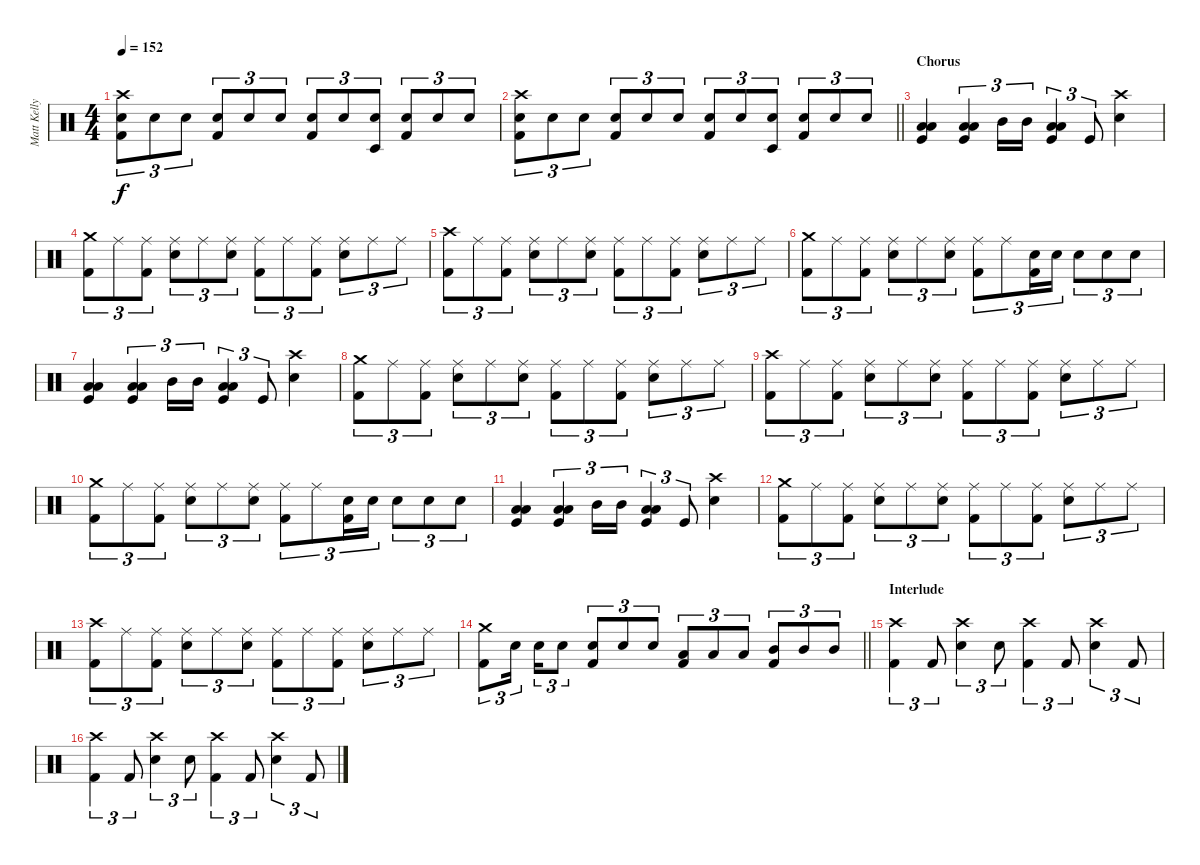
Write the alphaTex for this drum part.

\track ("Matt Kelly (Drums)" "Matt Kelly") {instrument percussion}
\staff {score}
\articulation defaults
\ts (4 4)
\tempo 152
\clef neutral
\ks c
("Crash high (hit)" "Electric Snare (hit)" "Kick (hit) 2").8{tu (3 2) dy f} "Electric Snare (hit)".8{tu (3 2)} "Electric Snare (hit)".8{tu (3 2)} ("Electric Snare (hit)" "Kick (hit) 2").8{tu (3 2)} "Electric Snare (hit)".8{tu (3 2)} "Electric Snare (hit)".8{tu (3 2)} ("Electric Snare (hit)" "Kick (hit) 2").8{tu (3 2)} "Electric Snare (hit)".8{tu (3 2)} ("Timbale low (hit)" "Electric Snare (hit)").8{tu (3 2)} ("Electric Snare (hit)" "Kick (hit) 2").8{tu (3 2)} "Electric Snare (hit)".8{tu (3 2)} "Electric Snare (hit)".8{tu (3 2)} |
\barLineRight lightlight
("Crash high (hit)" "Electric Snare (hit)" "Kick (hit) 2").8{tu (3 2)} "Electric Snare (hit)".8{tu (3 2)} "Electric Snare (hit)".8{tu (3 2)} ("Electric Snare (hit)" "Kick (hit) 2").8{tu (3 2)} "Electric Snare (hit)".8{tu (3 2)} "Electric Snare (hit)".8{tu (3 2)} ("Electric Snare (hit)" "Kick (hit) 2").8{tu (3 2)} "Electric Snare (hit)".8{tu (3 2)} ("Timbale low (hit)" "Electric Snare (hit)").8{tu (3 2)} ("Electric Snare (hit)" "Kick (hit) 2").8{tu (3 2)} "Electric Snare (hit)".8{tu (3 2)} "Electric Snare (hit)".8{tu (3 2)} |
\section ("" "Chorus")
("Low Tom (hit)" "Low Floor Tom (hit)" "Kick (hit)").4 ("Low Tom (hit)" "Low Floor Tom (hit)" "Kick (hit)").4{tu (3 2)} "Mid Tom (hit)".16{tu (3 2)} "Mid Tom (hit)".16{tu (3 2)} ("Low Tom (hit)" "Low Floor Tom (hit)" "Kick (hit)").4{tu (3 2)} "Kick (hit)".8{tu (3 2)} ("Crash high (hit)" "Snare (hit) 2").4 |
("Crash medium (hit)" "Kick (hit) 2").8{tu (3 2)} "Ride (middle)".8{tu (3 2)} ("Ride (middle)" "Kick (hit) 2").8{tu (3 2)} ("Ride (middle)" "Electric Snare (hit)").8{tu (3 2)} "Ride (middle)".8{tu (3 2)} ("Ride (middle)" "Electric Snare (hit)").8{tu (3 2)} ("Ride (middle)" "Kick (hit) 2").8{tu (3 2)} "Ride (middle)".8{tu (3 2)} ("Ride (middle)" "Kick (hit) 2").8{tu (3 2)} ("Ride (middle)" "Electric Snare (hit)").8{tu (3 2)} "Ride (middle)".8{tu (3 2)} "Ride (middle)".8{tu (3 2)} |
("Crash high (hit)" "Kick (hit) 2").8{tu (3 2)} "Ride (middle)".8{tu (3 2)} ("Ride (middle)" "Kick (hit) 2").8{tu (3 2)} ("Ride (middle)" "Electric Snare (hit)").8{tu (3 2)} "Ride (middle)".8{tu (3 2)} ("Ride (middle)" "Electric Snare (hit)").8{tu (3 2)} ("Ride (middle)" "Kick (hit) 2").8{tu (3 2)} "Ride (middle)".8{tu (3 2)} ("Ride (middle)" "Kick (hit) 2").8{tu (3 2)} ("Ride (middle)" "Electric Snare (hit)").8{tu (3 2)} "Ride (middle)".8{tu (3 2)} "Ride (middle)".8{tu (3 2)} |
("Crash medium (hit)" "Kick (hit) 2").8{tu (3 2)} "Ride (middle)".8{tu (3 2)} ("Ride (middle)" "Kick (hit) 2").8{tu (3 2)} ("Ride (middle)" "Electric Snare (hit)").8{tu (3 2)} "Ride (middle)".8{tu (3 2)} ("Ride (middle)" "Electric Snare (hit)").8{tu (3 2)} ("Ride (middle)" "Kick (hit) 2").8{tu (3 2)} "Ride (middle)".8{tu (3 2)} ("Electric Snare (hit)" "Kick (hit) 2").16{tu (3 2)} "Electric Snare (hit)".16{tu (3 2)} "Electric Snare (hit)".8{tu (3 2)} "Electric Snare (hit)".8{tu (3 2)} "Electric Snare (hit)".8{tu (3 2)} |
("Low Tom (hit)" "Low Floor Tom (hit)" "Kick (hit)").4 ("Low Tom (hit)" "Low Floor Tom (hit)" "Kick (hit)").4{tu (3 2)} "Mid Tom (hit)".16{tu (3 2)} "Mid Tom (hit)".16{tu (3 2)} ("Low Tom (hit)" "Low Floor Tom (hit)" "Kick (hit)").4{tu (3 2)} "Kick (hit)".8{tu (3 2)} ("Crash high (hit)" "Snare (hit) 2").4 |
("Crash medium (hit)" "Kick (hit) 2").8{tu (3 2)} "Ride (middle)".8{tu (3 2)} ("Ride (middle)" "Kick (hit) 2").8{tu (3 2)} ("Ride (middle)" "Electric Snare (hit)").8{tu (3 2)} "Ride (middle)".8{tu (3 2)} ("Ride (middle)" "Electric Snare (hit)").8{tu (3 2)} ("Ride (middle)" "Kick (hit) 2").8{tu (3 2)} "Ride (middle)".8{tu (3 2)} ("Ride (middle)" "Kick (hit) 2").8{tu (3 2)} ("Ride (middle)" "Electric Snare (hit)").8{tu (3 2)} "Ride (middle)".8{tu (3 2)} "Ride (middle)".8{tu (3 2)} |
("Crash high (hit)" "Kick (hit) 2").8{tu (3 2)} "Ride (middle)".8{tu (3 2)} ("Ride (middle)" "Kick (hit) 2").8{tu (3 2)} ("Ride (middle)" "Electric Snare (hit)").8{tu (3 2)} "Ride (middle)".8{tu (3 2)} ("Ride (middle)" "Electric Snare (hit)").8{tu (3 2)} ("Ride (middle)" "Kick (hit) 2").8{tu (3 2)} "Ride (middle)".8{tu (3 2)} ("Ride (middle)" "Kick (hit) 2").8{tu (3 2)} ("Ride (middle)" "Electric Snare (hit)").8{tu (3 2)} "Ride (middle)".8{tu (3 2)} "Ride (middle)".8{tu (3 2)} |
("Crash medium (hit)" "Kick (hit) 2").8{tu (3 2)} "Ride (middle)".8{tu (3 2)} ("Ride (middle)" "Kick (hit) 2").8{tu (3 2)} ("Ride (middle)" "Electric Snare (hit)").8{tu (3 2)} "Ride (middle)".8{tu (3 2)} ("Ride (middle)" "Electric Snare (hit)").8{tu (3 2)} ("Ride (middle)" "Kick (hit) 2").8{tu (3 2)} "Ride (middle)".8{tu (3 2)} ("Electric Snare (hit)" "Kick (hit) 2").16{tu (3 2)} "Electric Snare (hit)".16{tu (3 2)} "Electric Snare (hit)".8{tu (3 2)} "Electric Snare (hit)".8{tu (3 2)} "Electric Snare (hit)".8{tu (3 2)} |
("Low Tom (hit)" "Low Floor Tom (hit)" "Kick (hit)").4 ("Low Tom (hit)" "Low Floor Tom (hit)" "Kick (hit)").4{tu (3 2)} "Mid Tom (hit)".16{tu (3 2)} "Mid Tom (hit)".16{tu (3 2)} ("Low Tom (hit)" "Low Floor Tom (hit)" "Kick (hit)").4{tu (3 2)} "Kick (hit)".8{tu (3 2)} ("Crash high (hit)" "Snare (hit) 2").4 |
("Crash medium (hit)" "Kick (hit) 2").8{tu (3 2)} "Ride (middle)".8{tu (3 2)} ("Ride (middle)" "Kick (hit) 2").8{tu (3 2)} ("Ride (middle)" "Electric Snare (hit)").8{tu (3 2)} "Ride (middle)".8{tu (3 2)} ("Ride (middle)" "Electric Snare (hit)").8{tu (3 2)} ("Ride (middle)" "Kick (hit) 2").8{tu (3 2)} "Ride (middle)".8{tu (3 2)} ("Ride (middle)" "Kick (hit) 2").8{tu (3 2)} ("Ride (middle)" "Electric Snare (hit)").8{tu (3 2)} "Ride (middle)".8{tu (3 2)} "Ride (middle)".8{tu (3 2)} |
("Crash high (hit)" "Kick (hit) 2").8{tu (3 2)} "Ride (middle)".8{tu (3 2)} ("Ride (middle)" "Kick (hit) 2").8{tu (3 2)} ("Ride (middle)" "Electric Snare (hit)").8{tu (3 2)} "Ride (middle)".8{tu (3 2)} ("Ride (middle)" "Electric Snare (hit)").8{tu (3 2)} ("Ride (middle)" "Kick (hit) 2").8{tu (3 2)} "Ride (middle)".8{tu (3 2)} ("Ride (middle)" "Kick (hit) 2").8{tu (3 2)} ("Ride (middle)" "Electric Snare (hit)").8{tu (3 2)} "Ride (middle)".8{tu (3 2)} "Ride (middle)".8{tu (3 2)} |
\barLineRight lightlight
("Crash medium (hit)" "Kick (hit) 2").8{tu (3 2)} "Electric Snare (hit)".16{tu (3 2) beam splitsecondary} "Electric Snare (hit)".16{tu (3 2)} "Electric Snare (hit)".8{tu (3 2)} ("Electric Snare (hit)" "Kick (hit) 2").8{tu (3 2)} "Electric Snare (hit)".8{tu (3 2)} "Electric Snare (hit)".8{tu (3 2)} ("Low Tom (hit)" "Kick (hit) 2").8{tu (3 2)} "Low Tom (hit)".8{tu (3 2)} "Low Tom (hit)".8{tu (3 2)} ("Mid Tom (hit)" "Kick (hit) 2").8{tu (3 2)} "Mid Tom (hit)".8{tu (3 2)} "Mid Tom (hit)".8{tu (3 2)} |
\section ("" "Interlude")
("Crash high (hit)" "Kick (hit) 2").4{tu (3 2)} "Kick (hit) 2".8{tu (3 2)} ("Crash high (hit)" "Electric Snare (hit)").4{tu (3 2)} "Electric Snare (hit)".8{tu (3 2)} ("Crash high (hit)" "Kick (hit) 2").4{tu (3 2)} "Kick (hit) 2".8{tu (3 2)} ("Crash high (hit)" "Electric Snare (hit)").4{tu (3 2)} "Kick (hit) 2".8{tu (3 2)} |
("Crash high (hit)" "Kick (hit) 2").4{tu (3 2)} "Kick (hit) 2".8{tu (3 2)} ("Crash high (hit)" "Electric Snare (hit)").4{tu (3 2)} "Electric Snare (hit)".8{tu (3 2)} ("Crash high (hit)" "Kick (hit) 2").4{tu (3 2)} "Kick (hit) 2".8{tu (3 2)} ("Crash high (hit)" "Electric Snare (hit)").4{tu (3 2)} "Kick (hit) 2".8{tu (3 2)}
